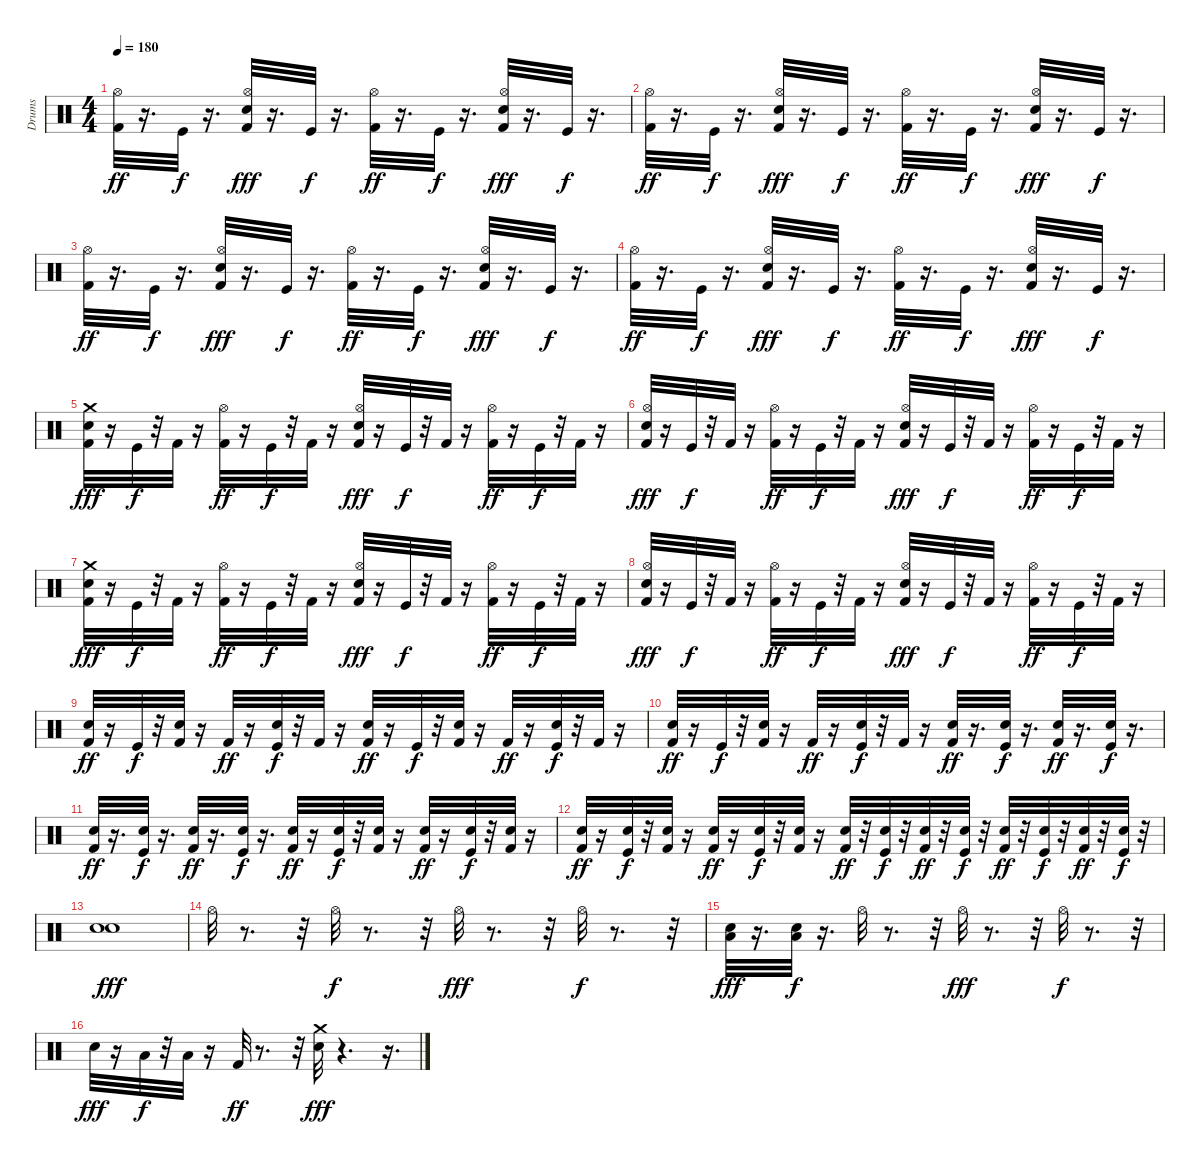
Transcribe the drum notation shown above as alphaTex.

\track ("Drums" "Drums") {instrument percussion}
\staff {score}
\articulation defaults
\ts (4 4)
\tempo 180
\clef neutral
\ks c
("Kick (hit) 2" "Hi-Hat (open)").32{dy ff} r.16{d} "Kick (hit)".32{dy f} r.16{d} ("Snare (hit) 2" "Kick (hit) 2" "Hi-Hat (open)").32{dy fff} r.16{d} "Kick (hit)".32{dy f} r.16{d} ("Kick (hit) 2" "Hi-Hat (open)").32{dy ff} r.16{d} "Kick (hit)".32{dy f} r.16{d} ("Snare (hit) 2" "Kick (hit) 2" "Hi-Hat (open)").32{dy fff} r.16{d} "Kick (hit)".32{dy f} r.16{d} |
("Kick (hit) 2" "Hi-Hat (open)").32{dy ff} r.16{d} "Kick (hit)".32{dy f} r.16{d} ("Snare (hit) 2" "Kick (hit) 2" "Hi-Hat (open)").32{dy fff} r.16{d} "Kick (hit)".32{dy f} r.16{d} ("Kick (hit) 2" "Hi-Hat (open)").32{dy ff} r.16{d} "Kick (hit)".32{dy f} r.16{d} ("Snare (hit) 2" "Kick (hit) 2" "Hi-Hat (open)").32{dy fff} r.16{d} "Kick (hit)".32{dy f} r.16{d} |
("Kick (hit) 2" "Hi-Hat (open)").32{dy ff} r.16{d} "Kick (hit)".32{dy f} r.16{d} ("Snare (hit) 2" "Kick (hit) 2" "Hi-Hat (open)").32{dy fff} r.16{d} "Kick (hit)".32{dy f} r.16{d} ("Kick (hit) 2" "Hi-Hat (open)").32{dy ff} r.16{d} "Kick (hit)".32{dy f} r.16{d} ("Snare (hit) 2" "Kick (hit) 2" "Hi-Hat (open)").32{dy fff} r.16{d} "Kick (hit)".32{dy f} r.16{d} |
("Kick (hit) 2" "Hi-Hat (open)").32{dy ff} r.16{d} "Kick (hit)".32{dy f} r.16{d} ("Snare (hit) 2" "Kick (hit) 2" "Hi-Hat (open)").32{dy fff} r.16{d} "Kick (hit)".32{dy f} r.16{d} ("Kick (hit) 2" "Hi-Hat (open)").32{dy ff} r.16{d} "Kick (hit)".32{dy f} r.16{d} ("Snare (hit) 2" "Kick (hit) 2" "Hi-Hat (open)").32{dy fff} r.16{d} "Kick (hit)".32{dy f} r.16{d} |
("Kick (hit) 2" "Snare (hit) 2" "Crash medium (hit)").32{dy fff} r.16 "Kick (hit)".32{dy f} r.32 "Kick (hit) 2".32 r.16 ("Kick (hit) 2" "Hi-Hat (open)").32{dy ff} r.16 "Kick (hit)".32{dy f} r.32 "Kick (hit) 2".32 r.16 ("Kick (hit) 2" "Snare (hit) 2" "Hi-Hat (open)").32{dy fff} r.16 "Kick (hit)".32{dy f} r.32 "Kick (hit) 2".32 r.16 ("Kick (hit) 2" "Hi-Hat (open)").32{dy ff} r.16 "Kick (hit)".32{dy f} r.32 "Kick (hit) 2".32 r.16 |
("Kick (hit) 2" "Snare (hit) 2" "Hi-Hat (open)").32{dy fff} r.16 "Kick (hit)".32{dy f} r.32 "Kick (hit) 2".32 r.16 ("Kick (hit) 2" "Hi-Hat (open)").32{dy ff} r.16 "Kick (hit)".32{dy f} r.32 "Kick (hit) 2".32 r.16 ("Kick (hit) 2" "Snare (hit) 2" "Hi-Hat (open)").32{dy fff} r.16 "Kick (hit)".32{dy f} r.32 "Kick (hit) 2".32 r.16 ("Kick (hit) 2" "Hi-Hat (open)").32{dy ff} r.16 "Kick (hit)".32{dy f} r.32 "Kick (hit) 2".32 r.16 |
("Kick (hit) 2" "Snare (hit) 2" "Crash medium (hit)").32{dy fff} r.16 "Kick (hit)".32{dy f} r.32 "Kick (hit) 2".32 r.16 ("Kick (hit) 2" "Hi-Hat (open)").32{dy ff} r.16 "Kick (hit)".32{dy f} r.32 "Kick (hit) 2".32 r.16 ("Kick (hit) 2" "Snare (hit) 2" "Hi-Hat (open)").32{dy fff} r.16 "Kick (hit)".32{dy f} r.32 "Kick (hit) 2".32 r.16 ("Kick (hit) 2" "Hi-Hat (open)").32{dy ff} r.16 "Kick (hit)".32{dy f} r.32 "Kick (hit) 2".32 r.16 |
("Kick (hit) 2" "Snare (hit) 2" "Hi-Hat (open)").32{dy fff} r.16 "Kick (hit)".32{dy f} r.32 "Kick (hit) 2".32 r.16 ("Kick (hit) 2" "Hi-Hat (open)").32{dy ff} r.16 "Kick (hit)".32{dy f} r.32 "Kick (hit) 2".32 r.16 ("Kick (hit) 2" "Snare (hit) 2" "Hi-Hat (open)").32{dy fff} r.16 "Kick (hit)".32{dy f} r.32 "Kick (hit) 2".32 r.16 ("Kick (hit) 2" "Hi-Hat (open)").32{dy ff} r.16 "Kick (hit)".32{dy f} r.32 "Kick (hit) 2".32 r.16 |
("Snare (hit) 2" "Kick (hit) 2").32{dy ff} r.16 "Kick (hit)".32{dy f} r.32 ("Snare (hit) 2" "Kick (hit) 2").32 r.16 "Kick (hit) 2".32{dy ff} r.16 ("Snare (hit) 2" "Kick (hit)").32{dy f} r.32 "Kick (hit) 2".32 r.16 ("Snare (hit) 2" "Kick (hit) 2").32{dy ff} r.16 "Kick (hit)".32{dy f} r.32 ("Snare (hit) 2" "Kick (hit) 2").32 r.16 "Kick (hit) 2".32{dy ff} r.16 ("Snare (hit) 2" "Kick (hit)").32{dy f} r.32 "Kick (hit) 2".32 r.16 |
("Snare (hit) 2" "Kick (hit) 2").32{dy ff} r.16 "Kick (hit)".32{dy f} r.32 ("Snare (hit) 2" "Kick (hit) 2").32 r.16 "Kick (hit) 2".32{dy ff} r.16 ("Snare (hit) 2" "Kick (hit)").32{dy f} r.32 "Kick (hit) 2".32 r.16 ("Snare (hit) 2" "Kick (hit) 2").32{dy ff} r.16{d} ("Snare (hit) 2" "Kick (hit)").32{dy f} r.16{d} ("Snare (hit) 2" "Kick (hit) 2").32{dy ff} r.16{d} ("Snare (hit) 2" "Kick (hit)").32{dy f} r.16{d} |
("Snare (hit) 2" "Kick (hit) 2").32{dy ff} r.16{d} ("Snare (hit) 2" "Kick (hit)").32{dy f} r.16{d} ("Snare (hit) 2" "Kick (hit) 2").32{dy ff} r.16{d} ("Snare (hit) 2" "Kick (hit)").32{dy f} r.16{d} ("Snare (hit) 2" "Kick (hit) 2").32{dy ff} r.16 ("Snare (hit) 2" "Kick (hit)").32{dy f} r.32 ("Snare (hit) 2" "Kick (hit) 2").32 r.16 ("Snare (hit) 2" "Kick (hit) 2").32{dy ff} r.16 ("Snare (hit) 2" "Kick (hit)").32{dy f} r.32 ("Snare (hit) 2" "Kick (hit) 2").32 r.16 |
("Snare (hit) 2" "Kick (hit) 2").32{dy ff} r.16 ("Snare (hit) 2" "Kick (hit)").32{dy f} r.32 ("Snare (hit) 2" "Kick (hit) 2").32 r.16 ("Snare (hit) 2" "Kick (hit) 2").32{dy ff} r.16 ("Snare (hit) 2" "Kick (hit)").32{dy f} r.32 ("Snare (hit) 2" "Kick (hit) 2").32 r.16 ("Snare (hit) 2" "Kick (hit) 2").32{dy ff} r.32 ("Snare (hit) 2" "Kick (hit)").32{dy f} r.32 ("Snare (hit) 2" "Kick (hit) 2").32{dy ff} r.32 ("Snare (hit) 2" "Kick (hit)").32{dy f} r.32 ("Snare (hit) 2" "Kick (hit) 2").32{dy ff} r.32 ("Snare (hit) 2" "Kick (hit)").32{dy f} r.32 ("Snare (hit) 2" "Kick (hit) 2").32{dy ff} r.32 ("Snare (hit) 2" "Kick (hit)").32{dy f} r.32 |
("Snare (hit) 2" "Snare (hit) 2").1{dy fff} |
"Hi-Hat (open)".32 r.8{d} r.32 "Hi-Hat (open)".32{dy f} r.8{d} r.32 "Hi-Hat (open)".32{dy fff} r.8{d} r.32 "Hi-Hat (open)".32{dy f} r.8{d} r.32 |
("Low Floor Tom (hit)" "Snare (hit) 2").32{dy fff} r.16{d} ("Low Floor Tom (hit)" "Snare (hit) 2").32{dy f} r.16{d} "Hi-Hat (open)".32 r.8{d} r.32 "Hi-Hat (open)".32{dy fff} r.8{d} r.32 "Hi-Hat (open)".32{dy f} r.8{d} r.32 |
"Snare (hit) 2".32{dy fff} r.16 "Low Tom (hit)".32{dy f} r.32 "Low Floor Tom (hit)".32 r.16 "Kick (hit) 2".32{dy ff} r.8{d} r.32 ("Crash medium (hit)" "Snare (hit) 2").32{dy fff} r.4{d} r.16{d}
